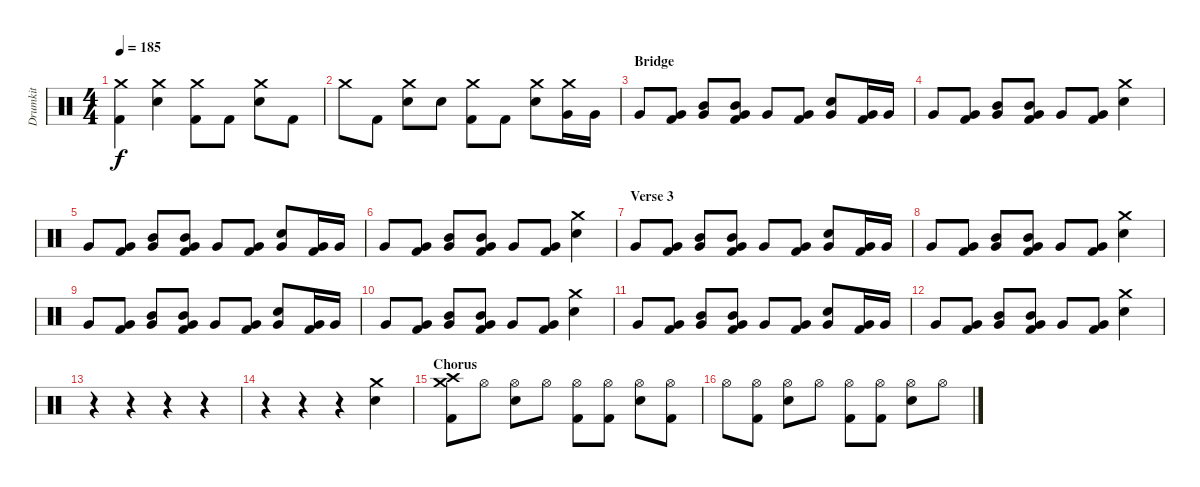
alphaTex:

\track ("Drumkit" "Drumkit") {instrument percussion}
\staff {score}
\articulation defaults
\ts (4 4)
\tempo 185
\clef neutral
\ks c
("Kick (hit) 2" "Crash medium (hit)").4{dy f} ("Snare (hit) 2" "Crash medium (hit)").4 ("Kick (hit) 2" "Crash medium (hit)").8 "Kick (hit) 2".8 ("Snare (hit) 2" "Crash medium (hit)").8 "Kick (hit) 2".8 |
"Crash medium (hit)".8 "Kick (hit) 2".8 ("Snare (hit) 2" "Crash medium (hit)").8 "Snare (hit) 2".8 ("Kick (hit) 2" "Crash medium (hit)").8 "Kick (hit) 2".8 ("Snare (hit) 2" "Crash medium (hit)").8 ("Very Low Tom (hit)" "Crash medium (hit)").16 "Very Low Tom (hit)".16 |
\section ("" "Bridge")
"Very Low Tom (hit)".8 ("Very Low Tom (hit)" "Kick (hit) 2").8 ("Mid Tom (hit)" "Very Low Tom (hit)").8 ("Mid Tom (hit)" "Very Low Tom (hit)" "Kick (hit) 2").8 "Very Low Tom (hit)".8 ("Very Low Tom (hit)" "Kick (hit) 2").8 ("Very Low Tom (hit)" "Snare (hit) 2").8 ("Very Low Tom (hit)" "Kick (hit) 2").16 "Very Low Tom (hit)".16 |
"Very Low Tom (hit)".8 ("Very Low Tom (hit)" "Kick (hit) 2").8 ("Mid Tom (hit)" "Very Low Tom (hit)").8 ("Mid Tom (hit)" "Very Low Tom (hit)" "Kick (hit) 2").8 "Very Low Tom (hit)".8 ("Very Low Tom (hit)" "Kick (hit) 2").8 ("Snare (hit) 2" "Crash medium (hit)").4 |
"Very Low Tom (hit)".8 ("Very Low Tom (hit)" "Kick (hit) 2").8 ("Mid Tom (hit)" "Very Low Tom (hit)").8 ("Mid Tom (hit)" "Very Low Tom (hit)" "Kick (hit) 2").8 "Very Low Tom (hit)".8 ("Very Low Tom (hit)" "Kick (hit) 2").8 ("Very Low Tom (hit)" "Snare (hit) 2").8 ("Very Low Tom (hit)" "Kick (hit) 2").16 "Very Low Tom (hit)".16 |
"Very Low Tom (hit)".8 ("Very Low Tom (hit)" "Kick (hit) 2").8 ("Mid Tom (hit)" "Very Low Tom (hit)").8 ("Mid Tom (hit)" "Very Low Tom (hit)" "Kick (hit) 2").8 "Very Low Tom (hit)".8 ("Very Low Tom (hit)" "Kick (hit) 2").8 ("Snare (hit) 2" "Crash medium (hit)").4 |
\section ("" "Verse 3")
"Very Low Tom (hit)".8 ("Very Low Tom (hit)" "Kick (hit) 2").8 ("Mid Tom (hit)" "Very Low Tom (hit)").8 ("Mid Tom (hit)" "Very Low Tom (hit)" "Kick (hit) 2").8 "Very Low Tom (hit)".8 ("Very Low Tom (hit)" "Kick (hit) 2").8 ("Very Low Tom (hit)" "Snare (hit) 2").8 ("Very Low Tom (hit)" "Kick (hit) 2").16 "Very Low Tom (hit)".16 |
"Very Low Tom (hit)".8 ("Very Low Tom (hit)" "Kick (hit) 2").8 ("Mid Tom (hit)" "Very Low Tom (hit)").8 ("Mid Tom (hit)" "Very Low Tom (hit)" "Kick (hit) 2").8 "Very Low Tom (hit)".8 ("Very Low Tom (hit)" "Kick (hit) 2").8 ("Snare (hit) 2" "Crash medium (hit)").4 |
"Very Low Tom (hit)".8 ("Very Low Tom (hit)" "Kick (hit) 2").8 ("Mid Tom (hit)" "Very Low Tom (hit)").8 ("Mid Tom (hit)" "Very Low Tom (hit)" "Kick (hit) 2").8 "Very Low Tom (hit)".8 ("Very Low Tom (hit)" "Kick (hit) 2").8 ("Very Low Tom (hit)" "Snare (hit) 2").8 ("Very Low Tom (hit)" "Kick (hit) 2").16 "Very Low Tom (hit)".16 |
"Very Low Tom (hit)".8 ("Very Low Tom (hit)" "Kick (hit) 2").8 ("Mid Tom (hit)" "Very Low Tom (hit)").8 ("Mid Tom (hit)" "Very Low Tom (hit)" "Kick (hit) 2").8 "Very Low Tom (hit)".8 ("Very Low Tom (hit)" "Kick (hit) 2").8 ("Snare (hit) 2" "Crash medium (hit)").4 |
"Very Low Tom (hit)".8 ("Very Low Tom (hit)" "Kick (hit) 2").8 ("Mid Tom (hit)" "Very Low Tom (hit)").8 ("Mid Tom (hit)" "Very Low Tom (hit)" "Kick (hit) 2").8 "Very Low Tom (hit)".8 ("Very Low Tom (hit)" "Kick (hit) 2").8 ("Very Low Tom (hit)" "Snare (hit) 2").8 ("Very Low Tom (hit)" "Kick (hit) 2").16 "Very Low Tom (hit)".16 |
"Very Low Tom (hit)".8 ("Very Low Tom (hit)" "Kick (hit) 2").8 ("Mid Tom (hit)" "Very Low Tom (hit)").8 ("Mid Tom (hit)" "Very Low Tom (hit)" "Kick (hit) 2").8 "Very Low Tom (hit)".8 ("Very Low Tom (hit)" "Kick (hit) 2").8 ("Snare (hit) 2" "Crash medium (hit)").4 |
r.4 r.4 r.4 r.4 |
r.4 r.4 r.4 ("Snare (hit) 2" "Crash medium (hit)").4 |
\section ("" "Chorus")
("Crash high (hit)" "Kick (hit) 2" "Crash medium (hit)").8 "Hi-Hat (open)".8 ("Hi-Hat (open)" "Snare (hit) 2").8 "Hi-Hat (open)".8 ("Hi-Hat (open)" "Kick (hit) 2").8 ("Hi-Hat (open)" "Kick (hit) 2").8 ("Hi-Hat (open)" "Snare (hit) 2").8 ("Hi-Hat (open)" "Kick (hit) 2").8 |
"Hi-Hat (open)".8 ("Hi-Hat (open)" "Kick (hit) 2").8 ("Hi-Hat (open)" "Snare (hit) 2").8 "Hi-Hat (open)".8 ("Hi-Hat (open)" "Kick (hit) 2").8 ("Hi-Hat (open)" "Kick (hit) 2").8 ("Hi-Hat (open)" "Snare (hit) 2").8 "Hi-Hat (open)".8
